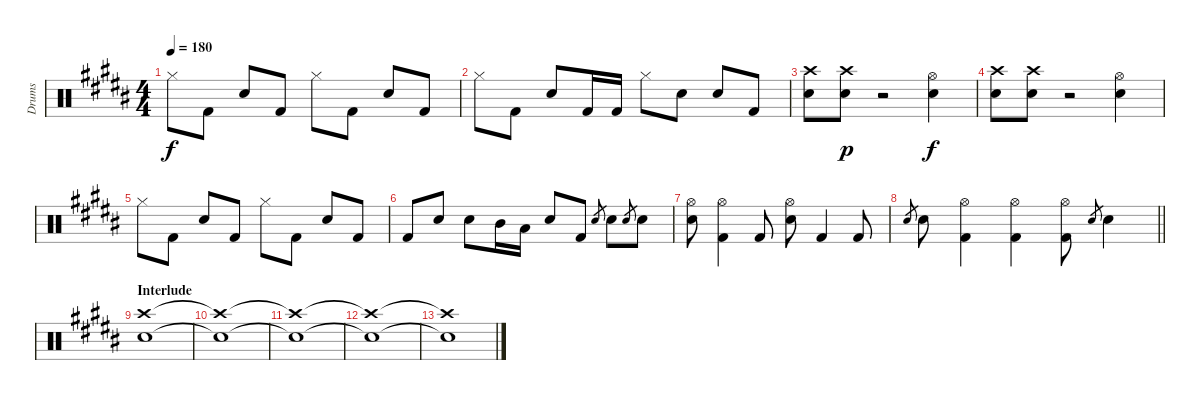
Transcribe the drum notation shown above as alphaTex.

\track ("Drums" "Drums") {instrument percussion}
\staff {score}
\articulation defaults
\ts (4 4)
\tempo 180
\clef neutral
\ks g#minor "Hi-Hat (closed)".8{dy f} "Kick (hit) 2".8 "Snare (hit) 2".8 "Kick (hit) 2".8 "Hi-Hat (closed)".8 "Kick (hit) 2".8 "Snare (hit) 2".8 "Kick (hit) 2".8
|
"Hi-Hat (closed)".8 "Kick (hit) 2".8 "Snare (hit) 2".8 "Kick (hit) 2".16 "Kick (hit) 2".16 "Hi-Hat (closed)".8 "Snare (hit) 2".8 "Snare (hit) 2".8 "Kick (hit) 2".8 |
("Crash high (hit)" "Snare (hit) 2").8 ("Crash high (hit)" "Snare (hit) 2").8{dy p} r.2 ("Hi-Hat (open)" "Snare (hit) 2").4{dy f} |
("Crash high (hit)" "Snare (hit) 2").8 ("Crash high (hit)" "Snare (hit) 2").8 r.2 ("Hi-Hat (open)" "Snare (hit) 2").4 |
"Hi-Hat (closed)".8 "Kick (hit) 2".8 "Snare (hit) 2".8 "Kick (hit) 2".8 "Hi-Hat (closed)".8 "Kick (hit) 2".8 "Snare (hit) 2".8 "Kick (hit) 2".8 |
"Kick (hit) 2".8 "Snare (hit) 2".8 "Snare (hit) 2".8 "Mid Tom (hit)".16 "Low Tom (hit)".16 "Snare (hit) 2".8 "Kick (hit) 2".8 "Snare (hit) 2".8{gr} "Snare (hit) 2".8 "Snare (hit) 2".8{gr} "Snare (hit) 2".8 |
("Snare (hit) 2" "Hi-Hat (open)").8 ("Kick (hit) 2" "Hi-Hat (open)").4 "Kick (hit) 2".8 ("Snare (hit) 2" "Hi-Hat (open)").8 "Kick (hit) 2".4 "Kick (hit) 2".8 |
\barLineRight lightlight "Snare (hit) 2".8{gr} "Snare (hit) 2".8
("Kick (hit) 2" "Hi-Hat (open)").4 ("Kick (hit) 2" "Hi-Hat (open)").4 ("Kick (hit) 2" "Hi-Hat (open)").8 "Snare (hit) 2".8{gr} "Snare (hit) 2".4 |
\section ("" "Interlude")
("Crash high (hit)" "Snare (hit) 2").1 |
("Crash high (hit)"{t} "Snare (hit) 2"{t}).1 |
("Crash high (hit)"{t} "Snare (hit) 2"{t}).1 |
("Crash high (hit)"{t} "Snare (hit) 2"{t}).1 |
("Crash high (hit)"{t} "Snare (hit) 2"{t}).1
